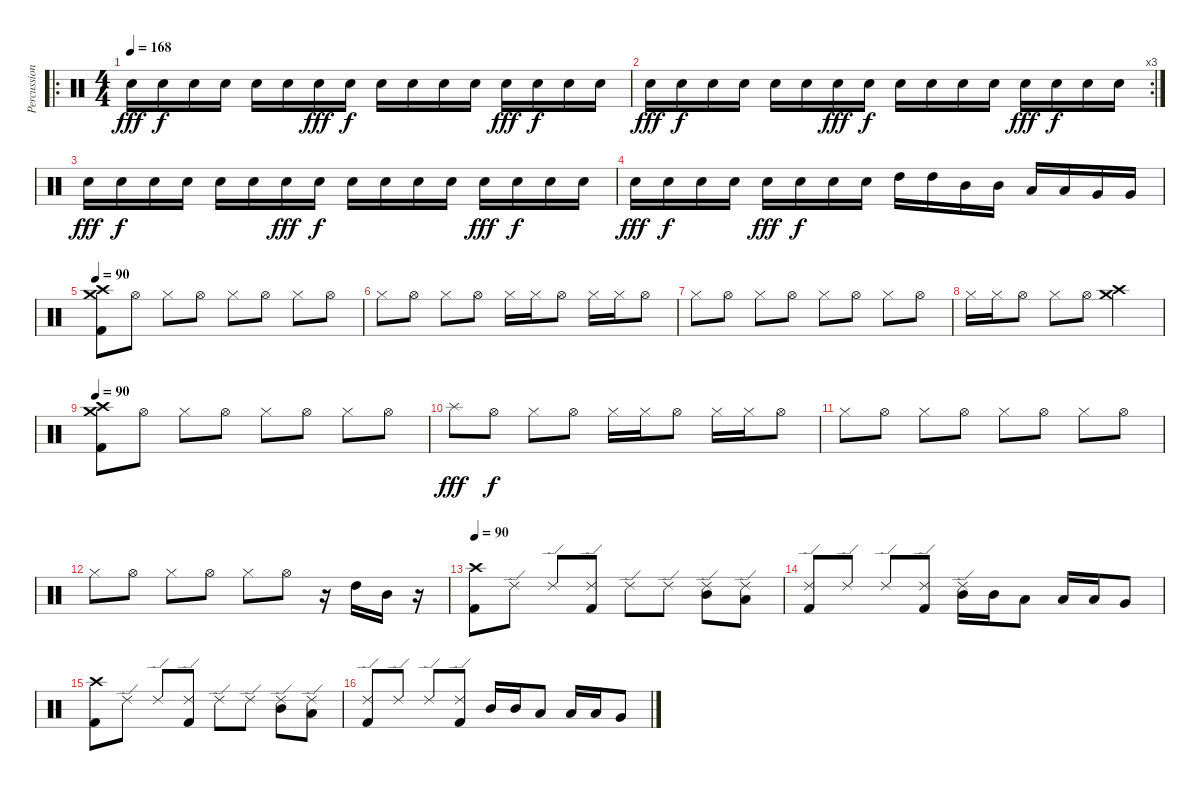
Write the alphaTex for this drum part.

\track ("Percussion" "Percussion") {instrument percussion}
\staff {score}
\articulation defaults
\ro
\ts (4 4)
\tempo 168
\tempo 180
\tempo 168
\clef neutral
\ks c "Snare (hit) 2".16{dy fff} "Snare (hit) 2".16{dy f} "Snare (hit) 2".16 "Snare (hit) 2".16 "Snare (hit) 2".16 "Snare (hit) 2".16 "Snare (hit) 2".16{dy fff} "Snare (hit) 2".16{dy f} "Snare (hit) 2".16 "Snare (hit) 2".16 "Snare (hit) 2".16 "Snare (hit) 2".16 "Snare (hit) 2".16{dy fff} "Snare (hit) 2".16{dy f} "Snare (hit) 2".16 "Snare (hit) 2".16
|
\rc 3 "Snare (hit) 2".16{dy fff} "Snare (hit) 2".16{dy f} "Snare (hit) 2".16 "Snare (hit) 2".16 "Snare (hit) 2".16 "Snare (hit) 2".16 "Snare (hit) 2".16{dy fff} "Snare (hit) 2".16{dy f} "Snare (hit) 2".16 "Snare (hit) 2".16 "Snare (hit) 2".16 "Snare (hit) 2".16 "Snare (hit) 2".16{dy fff} "Snare (hit) 2".16{dy f} "Snare (hit) 2".16 "Snare (hit) 2".16
|
"Snare (hit) 2".16{dy fff} "Snare (hit) 2".16{dy f} "Snare (hit) 2".16 "Snare (hit) 2".16 "Snare (hit) 2".16 "Snare (hit) 2".16 "Snare (hit) 2".16{dy fff} "Snare (hit) 2".16{dy f} "Snare (hit) 2".16 "Snare (hit) 2".16 "Snare (hit) 2".16 "Snare (hit) 2".16 "Snare (hit) 2".16{dy fff} "Snare (hit) 2".16{dy f} "Snare (hit) 2".16 "Snare (hit) 2".16 |
"Snare (hit) 2".16{dy fff} "Snare (hit) 2".16{dy f} "Snare (hit) 2".16 "Snare (hit) 2".16 "Snare (hit) 2".16{dy fff} "Snare (hit) 2".16{dy f} "Snare (hit) 2".16 "Snare (hit) 2".16 "High Tom (hit)".16 "High Tom (hit)".16 "Mid Tom (hit)".16 "Mid Tom (hit)".16 "Low Tom (hit)".16 "Low Tom (hit)".16 "Very Low Tom (hit)".16 "Very Low Tom (hit)".16 |
\tempo 90
("Crash high (hit)" "Crash medium (hit)" "Kick (hit) 2").8 "Hi-Hat (open)".8 "Hi-Hat (closed)".8 "Hi-Hat (open)".8 "Hi-Hat (closed)".8 "Hi-Hat (open)".8 "Hi-Hat (closed)".8 "Hi-Hat (open)".8 |
"Hi-Hat (closed)".8 "Hi-Hat (open)".8 "Hi-Hat (closed)".8 "Hi-Hat (open)".8 "Hi-Hat (closed)".16 "Hi-Hat (closed)".16 "Hi-Hat (open)".8 "Hi-Hat (closed)".16 "Hi-Hat (closed)".16 "Hi-Hat (open)".8 |
"Hi-Hat (closed)".8 "Hi-Hat (open)".8 "Hi-Hat (closed)".8 "Hi-Hat (open)".8 "Hi-Hat (closed)".8 "Hi-Hat (open)".8 "Hi-Hat (closed)".8 "Hi-Hat (open)".8 |
"Hi-Hat (closed)".16 "Hi-Hat (closed)".16 "Hi-Hat (open)".8 "Hi-Hat (closed)".8 "Hi-Hat (open)".8 ("Crash medium (hit)"{tr (57 64)} "Crash high (hit)"{tr (49 64)}).2 |
\tempo 90
("Crash high (hit)" "Crash medium (hit)" "Kick (hit) 2").8 "Hi-Hat (open)".8 "Hi-Hat (closed)".8 "Hi-Hat (open)".8 "Hi-Hat (closed)".8 "Hi-Hat (open)".8 "Hi-Hat (closed)".8 "Hi-Hat (open)".8 |
"Splash (hit)".8{dy fff} "Hi-Hat (open)".8{dy f} "Hi-Hat (closed)".8 "Hi-Hat (open)".8 "Hi-Hat (closed)".16 "Hi-Hat (closed)".16 "Hi-Hat (open)".8 "Hi-Hat (closed)".16 "Hi-Hat (closed)".16 "Hi-Hat (open)".8 |
"Hi-Hat (closed)".8 "Hi-Hat (open)".8 "Hi-Hat (closed)".8 "Hi-Hat (open)".8 "Hi-Hat (closed)".8 "Hi-Hat (open)".8 "Hi-Hat (closed)".8 "Hi-Hat (open)".8 |
"Hi-Hat (closed)".8 "Hi-Hat (open)".8 "Hi-Hat (closed)".8 "Hi-Hat (open)".8 "Hi-Hat (closed)".8 "Hi-Hat (open)".8 r.16 "High Tom (hit)".16 "Mid Tom (hit)".16 r.16 |
\tempo 90
("Crash high (hit)" "Kick (hit) 2").8 "Ride (edge) 2".8 "Ride (edge) 2".8 ("Ride (edge) 2" "Kick (hit) 2").8 "Ride (edge) 2".8 "Ride (edge) 2".8 ("Ride (edge) 2" "Mid Tom (hit)").8 ("Ride (edge) 2" "Low Tom (hit)").8 |
("Ride (edge) 2" "Kick (hit) 2").8 "Ride (edge) 2".8 "Ride (edge) 2".8 ("Ride (edge) 2" "Kick (hit) 2").8 ("Ride (edge) 2" "Mid Tom (hit)").16 "Mid Tom (hit)".16 "Low Tom (hit)".8 "Low Tom (hit)".16 "Low Tom (hit)".16 "Very Low Tom (hit)".8 |
("Crash high (hit)" "Kick (hit) 2").8 "Ride (edge) 2".8 "Ride (edge) 2".8 ("Ride (edge) 2" "Kick (hit) 2").8 "Ride (edge) 2".8 "Ride (edge) 2".8 ("Ride (edge) 2" "Mid Tom (hit)").8 ("Ride (edge) 2" "Low Tom (hit)").8 |
("Ride (edge) 2" "Kick (hit) 2").8 "Ride (edge) 2".8 "Ride (edge) 2".8 ("Ride (edge) 2" "Kick (hit) 2").8 "Mid Tom (hit)".16 "Mid Tom (hit)".16 "Low Tom (hit)".8 "Low Tom (hit)".16 "Low Tom (hit)".16 "Very Low Tom (hit)".8
